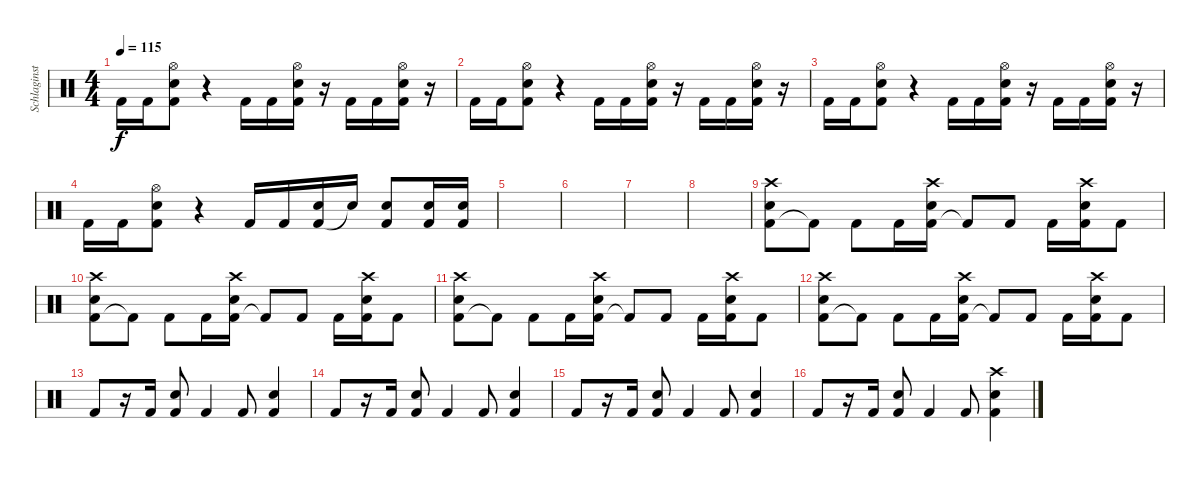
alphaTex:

\track ("Schlaginstrumente - Auswahl" "Schlaginst") {instrument percussion}
\staff {score}
\articulation defaults
\ts (4 4)
\tempo 115
\clef neutral
\ks c "Kick (hit) 2".16{dy f} "Kick (hit) 2".16
("Kick (hit) 2" "Snare (hit) 2" "Hi-Hat (open)").8 r.4 "Kick (hit) 2".16 "Kick (hit) 2".16 ("Kick (hit) 2" "Snare (hit) 2" "Hi-Hat (open)").16 r.16 "Kick (hit) 2".16 "Kick (hit) 2".16 ("Kick (hit) 2" "Snare (hit) 2" "Hi-Hat (open)").16 r.16 |
"Kick (hit) 2".16 "Kick (hit) 2".16 ("Kick (hit) 2" "Snare (hit) 2" "Hi-Hat (open)").8 r.4 "Kick (hit) 2".16 "Kick (hit) 2".16 ("Kick (hit) 2" "Snare (hit) 2" "Hi-Hat (open)").16 r.16 "Kick (hit) 2".16 "Kick (hit) 2".16 ("Kick (hit) 2" "Snare (hit) 2" "Hi-Hat (open)").16 r.16 |
"Kick (hit) 2".16 "Kick (hit) 2".16 ("Kick (hit) 2" "Snare (hit) 2" "Hi-Hat (open)").8 r.4 "Kick (hit) 2".16 "Kick (hit) 2".16 ("Kick (hit) 2" "Snare (hit) 2" "Hi-Hat (open)").16 r.16 "Kick (hit) 2".16 "Kick (hit) 2".16 ("Kick (hit) 2" "Snare (hit) 2" "Hi-Hat (open)").16 r.16 |
"Kick (hit) 2".16 "Kick (hit) 2".16 ("Kick (hit) 2" "Snare (hit) 2" "Hi-Hat (open)").8 r.4 "Kick (hit) 2".16 "Kick (hit) 2".16 ("Kick (hit) 2" "Snare (hit) 2").16 "Snare (hit)"{t}.16 ("Kick (hit) 2" "Snare (hit) 2").8 ("Kick (hit) 2" "Snare (hit) 2").16 ("Kick (hit) 2" "Snare (hit) 2").16 |
|
|
|
|
("Kick (hit) 2" "Snare (hit) 2" "Crash high (hit)").8 "Kick (hit) 2"{t}.8 "Kick (hit) 2".8 "Kick (hit) 2".16 ("Kick (hit) 2" "Snare (hit) 2" "Crash high (hit)").16 "Kick (hit) 2"{t}.8 "Kick (hit) 2".8 "Kick (hit) 2".16 ("Kick (hit) 2" "Snare (hit) 2" "Crash high (hit)").16 "Kick (hit) 2".8 |
("Kick (hit) 2" "Snare (hit) 2" "Crash high (hit)").8 "Kick (hit) 2"{t}.8 "Kick (hit) 2".8 "Kick (hit) 2".16 ("Kick (hit) 2" "Snare (hit) 2" "Crash high (hit)").16 "Kick (hit) 2"{t}.8 "Kick (hit) 2".8 "Kick (hit) 2".16 ("Kick (hit) 2" "Snare (hit) 2" "Crash high (hit)").16 "Kick (hit) 2".8 |
("Kick (hit) 2" "Snare (hit) 2" "Crash high (hit)").8 "Kick (hit) 2"{t}.8 "Kick (hit) 2".8 "Kick (hit) 2".16 ("Kick (hit) 2" "Snare (hit) 2" "Crash high (hit)").16 "Kick (hit) 2"{t}.8 "Kick (hit) 2".8 "Kick (hit) 2".16 ("Kick (hit) 2" "Snare (hit) 2" "Crash high (hit)").16 "Kick (hit) 2".8 |
("Kick (hit) 2" "Snare (hit) 2" "Crash high (hit)").8 "Kick (hit) 2"{t}.8 "Kick (hit) 2".8 "Kick (hit) 2".16 ("Kick (hit) 2" "Snare (hit) 2" "Crash high (hit)").16 "Kick (hit) 2"{t}.8 "Kick (hit) 2".8 "Kick (hit) 2".16 ("Kick (hit) 2" "Snare (hit) 2" "Crash high (hit)").16 "Kick (hit) 2".8 |
"Kick (hit) 2".8 r.16 "Kick (hit) 2".16 ("Kick (hit) 2" "Snare (hit) 2").8 "Kick (hit) 2".4 "Kick (hit) 2".8 ("Kick (hit) 2" "Snare (hit) 2").4 |
"Kick (hit) 2".8 r.16 "Kick (hit) 2".16 ("Kick (hit) 2" "Snare (hit) 2").8 "Kick (hit) 2".4 "Kick (hit) 2".8 ("Kick (hit) 2" "Snare (hit) 2").4 |
"Kick (hit) 2".8 r.16 "Kick (hit) 2".16 ("Kick (hit) 2" "Snare (hit) 2").8 "Kick (hit) 2".4 "Kick (hit) 2".8 ("Kick (hit) 2" "Snare (hit) 2").4 |
"Kick (hit) 2".8 r.16 "Kick (hit) 2".16 ("Kick (hit) 2" "Snare (hit) 2").8 "Kick (hit) 2".4 "Kick (hit) 2".8 ("Kick (hit) 2" "Snare (hit) 2" "Crash high (hit)").4
